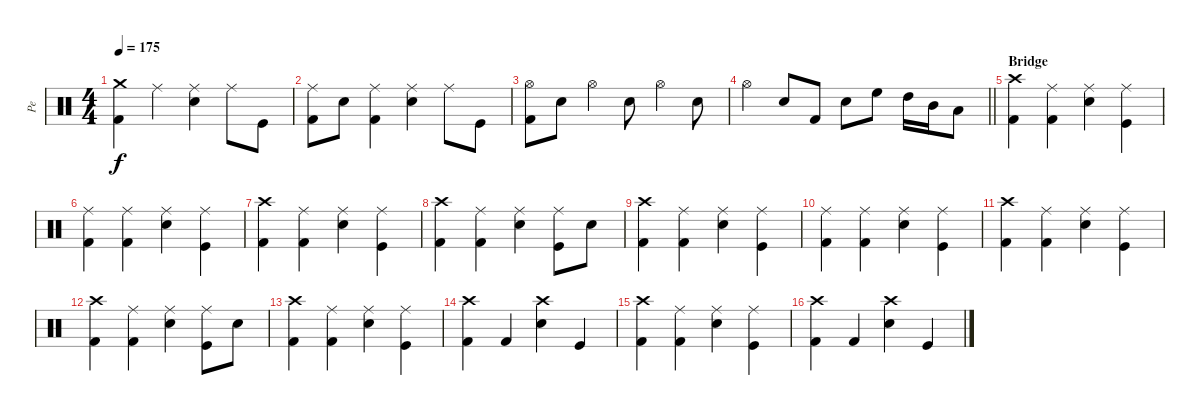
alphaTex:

\track ("Pe" "Pe") {instrument percussion}
\staff {score}
\articulation defaults
\ts (4 4)
\tempo 175
\clef neutral
\ks c
("Kick (hit) 2" "Crash medium (hit)").4{dy f} "Ride (middle)".4 ("Electric Snare (hit)" "Ride (middle)").4 "Ride (middle)".8 "Kick (hit)".8 |
("Kick (hit) 2" "Ride (middle)").8 "Electric Snare (hit)".8 ("Kick (hit) 2" "Ride (middle)").4 ("Electric Snare (hit)" "Ride (middle)").4 "Ride (middle)".8 "Kick (hit)".8 |
("Kick (hit) 2" "Hi-Hat (open)").8{volume 15} "Electric Snare (hit)".8 "Hi-Hat (open)".4 "Electric Snare (hit)".8 "Hi-Hat (open)".4 "Electric Snare (hit)".8 |
\barLineRight lightlight "Hi-Hat (open)".4 "Electric Snare (hit)".8 "Kick (hit) 2".8 "Electric Snare (hit)".8 "High Floor Tom (hit)".8 "High Tom (hit)".16 "Mid Tom (hit)".16 "Low Tom (hit)".8
|
\section ("" "Bridge")
("Kick (hit) 2" "Crash high (hit)").4 ("Kick (hit) 2" "Ride (middle)").4 ("Electric Snare (hit)" "Ride (middle)").4 ("Kick (hit)" "Ride (middle)").4 |
("Kick (hit) 2" "Ride (middle)").4 ("Kick (hit) 2" "Ride (middle)").4 ("Electric Snare (hit)" "Ride (middle)").4 ("Kick (hit)" "Ride (middle)").4 |
("Kick (hit) 2" "Crash high (hit)").4 ("Kick (hit) 2" "Ride (middle)").4 ("Electric Snare (hit)" "Ride (middle)").4 ("Kick (hit)" "Ride (middle)").4 |
("Kick (hit) 2" "Crash high (hit)").4 ("Kick (hit) 2" "Ride (middle)").4 ("Electric Snare (hit)" "Ride (middle)").4 ("Kick (hit)" "Ride (middle)").8 "Electric Snare (hit)".8 |
("Kick (hit) 2" "Crash high (hit)").4 ("Kick (hit) 2" "Ride (middle)").4 ("Electric Snare (hit)" "Ride (middle)").4 ("Kick (hit)" "Ride (middle)").4 |
("Kick (hit) 2" "Ride (middle)").4 ("Kick (hit) 2" "Ride (middle)").4 ("Electric Snare (hit)" "Ride (middle)").4 ("Kick (hit)" "Ride (middle)").4 |
("Kick (hit) 2" "Crash high (hit)").4 ("Kick (hit) 2" "Ride (middle)").4 ("Electric Snare (hit)" "Ride (middle)").4 ("Kick (hit)" "Ride (middle)").4 |
("Kick (hit) 2" "Crash high (hit)").4 ("Kick (hit) 2" "Ride (middle)").4 ("Electric Snare (hit)" "Ride (middle)").4 ("Kick (hit)" "Ride (middle)").8 "Electric Snare (hit)".8 |
("Kick (hit) 2" "Crash high (hit)").4 ("Kick (hit) 2" "Ride (middle)").4 ("Electric Snare (hit)" "Ride (middle)").4 ("Kick (hit)" "Ride (middle)").4 |
("Kick (hit) 2" "Crash high (hit)").4 "Kick (hit) 2".4 ("Electric Snare (hit)" "Crash high (hit)").4 "Kick (hit)".4 |
("Kick (hit) 2" "Crash high (hit)").4 ("Kick (hit) 2" "Ride (middle)").4 ("Electric Snare (hit)" "Ride (middle)").4 ("Kick (hit)" "Ride (middle)").4 |
("Kick (hit) 2" "Crash high (hit)").4 "Kick (hit) 2".4 ("Electric Snare (hit)" "Crash high (hit)").4 "Kick (hit)".4
